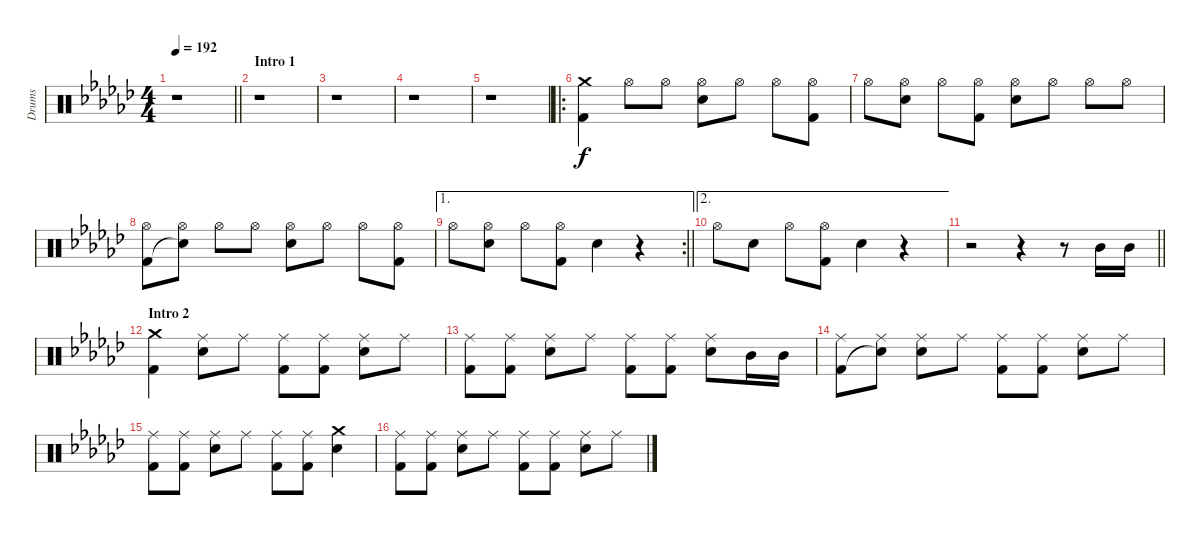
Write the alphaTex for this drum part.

\track ("Drums" "Drums") {instrument percussion}
\staff {score}
\articulation defaults
\ts (4 4)
\tempo 192
\clef neutral
\barLineRight lightlight
\ks ebminor
r.1{dy f} |
\section ("" "Intro 1")
r.1 |
r.1 |
r.1 |
r.1 |
\ro
("Crash medium (hit)" "Kick (hit) 2").4 "Hi-Hat (open)".8 "Hi-Hat (open)".8 ("Hi-Hat (open)" "Electric Snare (hit)").8 "Hi-Hat (open)".8 "Hi-Hat (open)".8 ("Hi-Hat (open)" "Kick (hit) 2").8 |
"Hi-Hat (open)".8 ("Hi-Hat (open)" "Electric Snare (hit)").8 "Hi-Hat (open)".8 ("Hi-Hat (open)" "Kick (hit) 2").8 ("Hi-Hat (open)" "Electric Snare (hit)").8 "Hi-Hat (open)".8 "Hi-Hat (open)".8 "Hi-Hat (open)".8 |
("Hi-Hat (open)" "Kick (hit) 2").8 ("Hi-Hat (open)" "Snare (hit)"{t}).8 "Hi-Hat (open)".8 "Hi-Hat (open)".8 ("Hi-Hat (open)" "Electric Snare (hit)").8 "Hi-Hat (open)".8 "Hi-Hat (open)".8 ("Hi-Hat (open)" "Kick (hit) 2").8 |
\ae 1
\rc 2
\barLineRight lightlight "Hi-Hat (open)".8
("Hi-Hat (open)" "Electric Snare (hit)").8 "Hi-Hat (open)".8 ("Hi-Hat (open)" "Kick (hit) 2").8 "Electric Snare (hit)".4 r.4 |
\ae 2 "Hi-Hat (open)".8 "Electric Snare (hit)".8 "Hi-Hat (open)".8
("Hi-Hat (open)" "Kick (hit) 2").8 "Electric Snare (hit)".4 r.4 |
\barLineRight lightlight
r.2 r.4 r.8 "Mid Tom (hit)".16 "Mid Tom (hit)".16 |
\section ("" "Intro 2")
("Crash medium (hit)" "Kick (hit) 2").4 ("Ride (middle)" "Electric Snare (hit)").8 "Ride (middle)".8 ("Ride (middle)" "Kick (hit) 2").8 ("Ride (middle)" "Kick (hit) 2").8 ("Ride (middle)" "Electric Snare (hit)").8 "Ride (middle)".8 |
("Ride (middle)" "Kick (hit) 2").8 ("Ride (middle)" "Kick (hit) 2").8 ("Ride (middle)" "Electric Snare (hit)").8 "Ride (middle)".8 ("Ride (middle)" "Kick (hit) 2").8 ("Ride (middle)" "Kick (hit) 2").8 ("Ride (middle)" "Electric Snare (hit)").8 "Mid Tom (hit)".16 "Mid Tom (hit)".16 |
("Ride (middle)" "Kick (hit) 2").8 ("Ride (middle)" "Snare (hit)"{t}).8 ("Ride (middle)" "Electric Snare (hit)").8 "Ride (middle)".8 ("Ride (middle)" "Kick (hit) 2").8 ("Ride (middle)" "Kick (hit) 2").8 ("Ride (middle)" "Electric Snare (hit)").8 "Ride (middle)".8 |
("Ride (middle)" "Kick (hit) 2").8 ("Ride (middle)" "Kick (hit) 2").8 ("Ride (middle)" "Electric Snare (hit)").8 "Ride (middle)".8 ("Ride (middle)" "Kick (hit) 2").8 ("Ride (middle)" "Kick (hit) 2").8 ("Crash medium (hit)" "Electric Snare (hit)").4 |
("Ride (middle)" "Kick (hit) 2").8 ("Ride (middle)" "Kick (hit) 2").8 ("Ride (middle)" "Electric Snare (hit)").8 "Ride (middle)".8 ("Ride (middle)" "Kick (hit) 2").8 ("Ride (middle)" "Kick (hit) 2").8 ("Ride (middle)" "Electric Snare (hit)").8 "Ride (middle)".8
